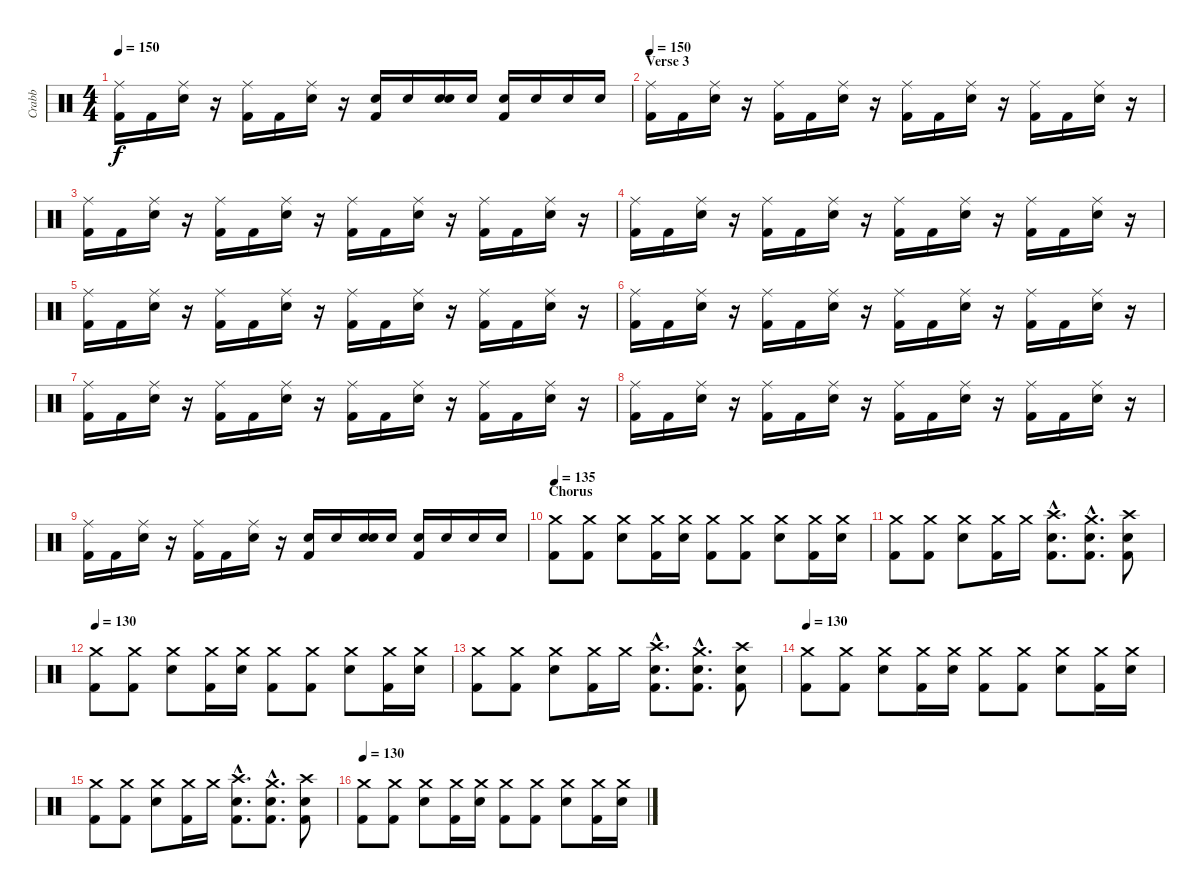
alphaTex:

\track ("Crabb" "Crabb") {instrument percussion}
\staff {score}
\articulation defaults
\ts (4 4)
\tempo 150
\clef neutral
\ks c
("Ride (middle)" "Kick (hit) 2").16{dy f} "Kick (hit) 2".16 ("Ride (middle)" "Electric Snare (hit)").16 r.16 ("Ride (middle)" "Kick (hit) 2").16 "Kick (hit) 2".16 ("Ride (middle)" "Electric Snare (hit)").16 r.16 ("Electric Snare (hit)" "Kick (hit) 2").16 "Electric Snare (hit)".16 ("Electric Snare (hit)" "Electric Snare (hit)").16 "Electric Snare (hit)".16 ("Electric Snare (hit)" "Kick (hit) 2").16 "Electric Snare (hit)".16 "Electric Snare (hit)".16 "Electric Snare (hit)".16 |
\section ("" "Verse 3")
\tempo 150
("Ride (middle)" "Kick (hit) 2").16 "Kick (hit) 2".16 ("Ride (middle)" "Electric Snare (hit)").16 r.16 ("Ride (middle)" "Kick (hit) 2").16 "Kick (hit) 2".16 ("Ride (middle)" "Electric Snare (hit)").16 r.16 ("Ride (middle)" "Kick (hit) 2").16 "Kick (hit) 2".16 ("Ride (middle)" "Electric Snare (hit)").16 r.16 ("Ride (middle)" "Kick (hit) 2").16 "Kick (hit) 2".16 ("Ride (middle)" "Electric Snare (hit)").16 r.16 |
("Ride (middle)" "Kick (hit) 2").16 "Kick (hit) 2".16 ("Ride (middle)" "Electric Snare (hit)").16 r.16 ("Ride (middle)" "Kick (hit) 2").16 "Kick (hit) 2".16 ("Ride (middle)" "Electric Snare (hit)").16 r.16 ("Ride (middle)" "Kick (hit) 2").16 "Kick (hit) 2".16 ("Ride (middle)" "Electric Snare (hit)").16 r.16 ("Ride (middle)" "Kick (hit) 2").16 "Kick (hit) 2".16 ("Ride (middle)" "Electric Snare (hit)").16 r.16 |
("Ride (middle)" "Kick (hit) 2").16 "Kick (hit) 2".16 ("Ride (middle)" "Electric Snare (hit)").16 r.16 ("Ride (middle)" "Kick (hit) 2").16 "Kick (hit) 2".16 ("Ride (middle)" "Electric Snare (hit)").16 r.16 ("Ride (middle)" "Kick (hit) 2").16 "Kick (hit) 2".16 ("Ride (middle)" "Electric Snare (hit)").16 r.16 ("Ride (middle)" "Kick (hit) 2").16 "Kick (hit) 2".16 ("Ride (middle)" "Electric Snare (hit)").16 r.16 |
("Ride (middle)" "Kick (hit) 2").16 "Kick (hit) 2".16 ("Ride (middle)" "Electric Snare (hit)").16 r.16 ("Ride (middle)" "Kick (hit) 2").16 "Kick (hit) 2".16 ("Ride (middle)" "Electric Snare (hit)").16 r.16 ("Ride (middle)" "Kick (hit) 2").16 "Kick (hit) 2".16 ("Ride (middle)" "Electric Snare (hit)").16 r.16 ("Ride (middle)" "Kick (hit) 2").16 "Kick (hit) 2".16 ("Ride (middle)" "Electric Snare (hit)").16 r.16 |
("Ride (middle)" "Kick (hit) 2").16 "Kick (hit) 2".16 ("Ride (middle)" "Electric Snare (hit)").16 r.16 ("Ride (middle)" "Kick (hit) 2").16 "Kick (hit) 2".16 ("Ride (middle)" "Electric Snare (hit)").16 r.16 ("Ride (middle)" "Kick (hit) 2").16 "Kick (hit) 2".16 ("Ride (middle)" "Electric Snare (hit)").16 r.16 ("Ride (middle)" "Kick (hit) 2").16 "Kick (hit) 2".16 ("Ride (middle)" "Electric Snare (hit)").16 r.16 |
("Ride (middle)" "Kick (hit) 2").16 "Kick (hit) 2".16 ("Ride (middle)" "Electric Snare (hit)").16 r.16 ("Ride (middle)" "Kick (hit) 2").16 "Kick (hit) 2".16 ("Ride (middle)" "Electric Snare (hit)").16 r.16 ("Ride (middle)" "Kick (hit) 2").16 "Kick (hit) 2".16 ("Ride (middle)" "Electric Snare (hit)").16 r.16 ("Ride (middle)" "Kick (hit) 2").16 "Kick (hit) 2".16 ("Ride (middle)" "Electric Snare (hit)").16 r.16 |
("Ride (middle)" "Kick (hit) 2").16 "Kick (hit) 2".16 ("Ride (middle)" "Electric Snare (hit)").16 r.16 ("Ride (middle)" "Kick (hit) 2").16 "Kick (hit) 2".16 ("Ride (middle)" "Electric Snare (hit)").16 r.16 ("Ride (middle)" "Kick (hit) 2").16 "Kick (hit) 2".16 ("Ride (middle)" "Electric Snare (hit)").16 r.16 ("Ride (middle)" "Kick (hit) 2").16 "Kick (hit) 2".16 ("Ride (middle)" "Electric Snare (hit)").16 r.16 |
("Ride (middle)" "Kick (hit) 2").16 "Kick (hit) 2".16 ("Ride (middle)" "Electric Snare (hit)").16 r.16 ("Ride (middle)" "Kick (hit) 2").16 "Kick (hit) 2".16 ("Ride (middle)" "Electric Snare (hit)").16 r.16 ("Electric Snare (hit)" "Kick (hit) 2").16 "Electric Snare (hit)".16 ("Electric Snare (hit)" "Electric Snare (hit)").16 "Electric Snare (hit)".16 ("Electric Snare (hit)" "Kick (hit) 2").16 "Electric Snare (hit)".16 "Electric Snare (hit)".16 "Electric Snare (hit)".16 |
\section ("" "Chorus")
\tempo 130
\tempo 135
("Crash medium (hit)" "Kick (hit) 2").8 ("Crash medium (hit)" "Kick (hit) 2").8 ("Crash medium (hit)" "Electric Snare (hit)").8 ("Crash medium (hit)" "Kick (hit) 2").16 ("Crash medium (hit)" "Electric Snare (hit)").16 ("Crash medium (hit)" "Kick (hit) 2").8 ("Crash medium (hit)" "Kick (hit) 2").8 ("Crash medium (hit)" "Electric Snare (hit)").8 ("Crash medium (hit)" "Kick (hit) 2").16 ("Crash medium (hit)" "Electric Snare (hit)").16 |
("Crash medium (hit)" "Kick (hit) 2").8 ("Crash medium (hit)" "Kick (hit) 2").8 ("Crash medium (hit)" "Electric Snare (hit)").8 ("Crash medium (hit)" "Kick (hit) 2").16 "Crash medium (hit)".16 ("Crash high (hit)"{hac} "Kick (hit) 2"{hac} "Electric Snare (hit)"{hac}).8{d} ("Crash medium (hit)"{hac} "Kick (hit) 2"{hac} "Electric Snare (hit)"{hac}).8{d} ("Crash high (hit)" "Kick (hit) 2" "Electric Snare (hit)").8 |
\tempo 130
("Crash medium (hit)" "Kick (hit) 2").8 ("Crash medium (hit)" "Kick (hit) 2").8 ("Crash medium (hit)" "Electric Snare (hit)").8 ("Crash medium (hit)" "Kick (hit) 2").16 ("Crash medium (hit)" "Electric Snare (hit)").16 ("Crash medium (hit)" "Kick (hit) 2").8 ("Crash medium (hit)" "Kick (hit) 2").8 ("Crash medium (hit)" "Electric Snare (hit)").8 ("Crash medium (hit)" "Kick (hit) 2").16 ("Crash medium (hit)" "Electric Snare (hit)").16 |
("Crash medium (hit)" "Kick (hit) 2").8 ("Crash medium (hit)" "Kick (hit) 2").8 ("Crash medium (hit)" "Electric Snare (hit)").8 ("Crash medium (hit)" "Kick (hit) 2").16 "Crash medium (hit)".16 ("Crash high (hit)"{hac} "Kick (hit) 2"{hac} "Electric Snare (hit)"{hac}).8{d} ("Crash medium (hit)"{hac} "Kick (hit) 2"{hac} "Electric Snare (hit)"{hac}).8{d} ("Crash high (hit)" "Kick (hit) 2" "Electric Snare (hit)").8 |
\tempo 130
("Crash medium (hit)" "Kick (hit) 2").8 ("Crash medium (hit)" "Kick (hit) 2").8 ("Crash medium (hit)" "Electric Snare (hit)").8 ("Crash medium (hit)" "Kick (hit) 2").16 ("Crash medium (hit)" "Electric Snare (hit)").16 ("Crash medium (hit)" "Kick (hit) 2").8 ("Crash medium (hit)" "Kick (hit) 2").8 ("Crash medium (hit)" "Electric Snare (hit)").8 ("Crash medium (hit)" "Kick (hit) 2").16 ("Crash medium (hit)" "Electric Snare (hit)").16 |
("Crash medium (hit)" "Kick (hit) 2").8 ("Crash medium (hit)" "Kick (hit) 2").8 ("Crash medium (hit)" "Electric Snare (hit)").8 ("Crash medium (hit)" "Kick (hit) 2").16 "Crash medium (hit)".16 ("Crash high (hit)"{hac} "Kick (hit) 2"{hac} "Electric Snare (hit)"{hac}).8{d} ("Crash medium (hit)"{hac} "Kick (hit) 2"{hac} "Electric Snare (hit)"{hac}).8{d} ("Crash high (hit)" "Kick (hit) 2" "Electric Snare (hit)").8 |
\tempo 130
("Crash medium (hit)" "Kick (hit) 2").8 ("Crash medium (hit)" "Kick (hit) 2").8 ("Crash medium (hit)" "Electric Snare (hit)").8 ("Crash medium (hit)" "Kick (hit) 2").16 ("Crash medium (hit)" "Electric Snare (hit)").16 ("Crash medium (hit)" "Kick (hit) 2").8 ("Crash medium (hit)" "Kick (hit) 2").8 ("Crash medium (hit)" "Electric Snare (hit)").8 ("Crash medium (hit)" "Kick (hit) 2").16 ("Crash medium (hit)" "Electric Snare (hit)").16
